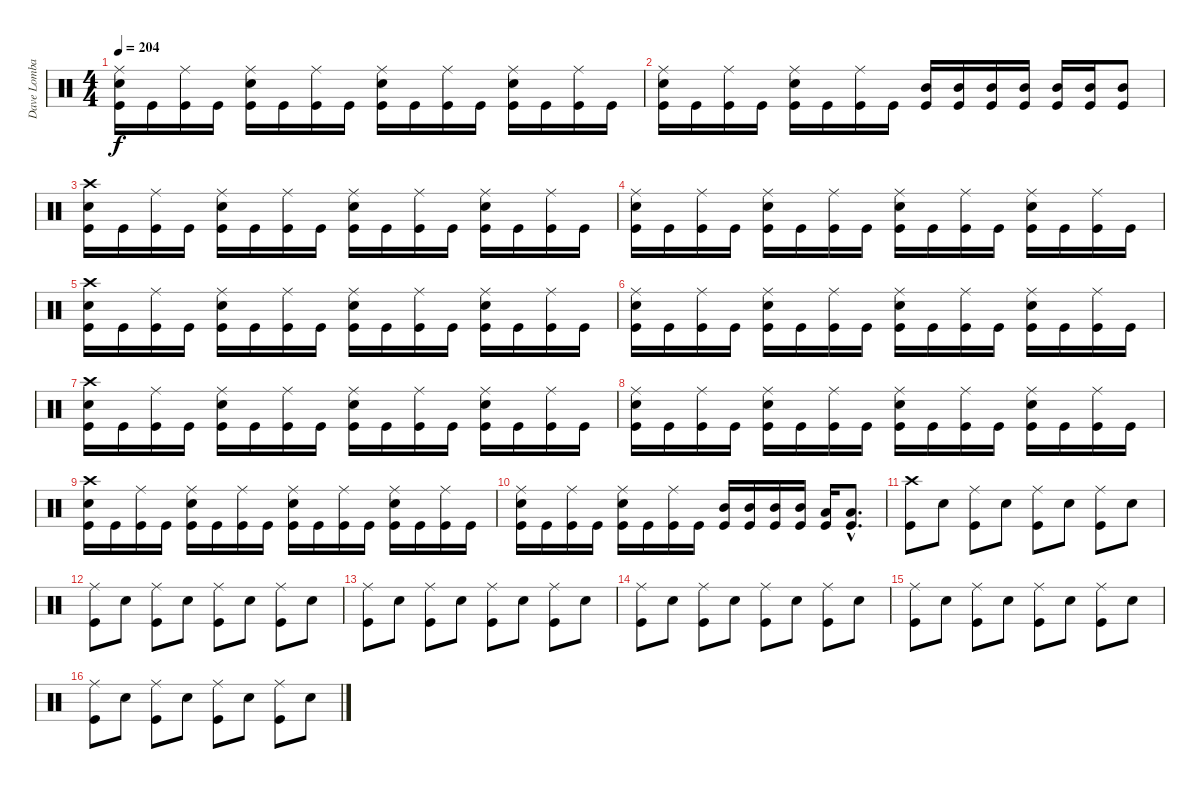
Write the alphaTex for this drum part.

\track ("Dave Lombardo" "Dave Lomba") {instrument percussion}
\staff {score}
\articulation defaults
\ts (4 4)
\tempo 204
\clef neutral
\ks c
("Ride (middle)" "Electric Snare (hit)" "Kick (hit)").16{dy f} "Kick (hit)".16 ("Ride (middle)" "Kick (hit)").16 "Kick (hit)".16 ("Ride (middle)" "Electric Snare (hit)" "Kick (hit)").16 "Kick (hit)".16 ("Ride (middle)" "Kick (hit)").16 "Kick (hit)".16 ("Ride (middle)" "Electric Snare (hit)" "Kick (hit)").16 "Kick (hit)".16 ("Ride (middle)" "Kick (hit)").16 "Kick (hit)".16 ("Ride (middle)" "Electric Snare (hit)" "Kick (hit)").16 "Kick (hit)".16 ("Ride (middle)" "Kick (hit)").16 "Kick (hit)".16 |
("Ride (middle)" "Electric Snare (hit)" "Kick (hit)").16 "Kick (hit)".16 ("Ride (middle)" "Kick (hit)").16 "Kick (hit)".16 ("Ride (middle)" "Electric Snare (hit)" "Kick (hit)").16 "Kick (hit)".16 ("Ride (middle)" "Kick (hit)").16 "Kick (hit)".16 ("Mid Tom (hit)" "Kick (hit)").16 ("Mid Tom (hit)" "Kick (hit)").16 ("Mid Tom (hit)" "Kick (hit)").16 ("Mid Tom (hit)" "Kick (hit)").16 ("Mid Tom (hit)" "Kick (hit)").16 ("Mid Tom (hit)" "Kick (hit)").16 ("Mid Tom (hit)" "Kick (hit)").8 |
("Crash high (hit)" "Electric Snare (hit)" "Kick (hit)").16 "Kick (hit)".16 ("Ride (middle)" "Kick (hit)").16 "Kick (hit)".16 ("Ride (middle)" "Electric Snare (hit)" "Kick (hit)").16 "Kick (hit)".16 ("Ride (middle)" "Kick (hit)").16 "Kick (hit)".16 ("Ride (middle)" "Electric Snare (hit)" "Kick (hit)").16 "Kick (hit)".16 ("Ride (middle)" "Kick (hit)").16 "Kick (hit)".16 ("Ride (middle)" "Electric Snare (hit)" "Kick (hit)").16 "Kick (hit)".16 ("Ride (middle)" "Kick (hit)").16 "Kick (hit)".16 |
("Ride (middle)" "Electric Snare (hit)" "Kick (hit)").16 "Kick (hit)".16 ("Ride (middle)" "Kick (hit)").16 "Kick (hit)".16 ("Ride (middle)" "Electric Snare (hit)" "Kick (hit)").16 "Kick (hit)".16 ("Ride (middle)" "Kick (hit)").16 "Kick (hit)".16 ("Ride (middle)" "Electric Snare (hit)" "Kick (hit)").16 "Kick (hit)".16 ("Ride (middle)" "Kick (hit)").16 "Kick (hit)".16 ("Ride (middle)" "Electric Snare (hit)" "Kick (hit)").16 "Kick (hit)".16 ("Ride (middle)" "Kick (hit)").16 "Kick (hit)".16 |
("Crash high (hit)" "Electric Snare (hit)" "Kick (hit)").16 "Kick (hit)".16 ("Ride (middle)" "Kick (hit)").16 "Kick (hit)".16 ("Ride (middle)" "Electric Snare (hit)" "Kick (hit)").16 "Kick (hit)".16 ("Ride (middle)" "Kick (hit)").16 "Kick (hit)".16 ("Ride (middle)" "Electric Snare (hit)" "Kick (hit)").16 "Kick (hit)".16 ("Ride (middle)" "Kick (hit)").16 "Kick (hit)".16 ("Ride (middle)" "Electric Snare (hit)" "Kick (hit)").16 "Kick (hit)".16 ("Ride (middle)" "Kick (hit)").16 "Kick (hit)".16 |
("Ride (middle)" "Electric Snare (hit)" "Kick (hit)").16 "Kick (hit)".16 ("Ride (middle)" "Kick (hit)").16 "Kick (hit)".16 ("Ride (middle)" "Electric Snare (hit)" "Kick (hit)").16 "Kick (hit)".16 ("Ride (middle)" "Kick (hit)").16 "Kick (hit)".16 ("Ride (middle)" "Electric Snare (hit)" "Kick (hit)").16 "Kick (hit)".16 ("Ride (middle)" "Kick (hit)").16 "Kick (hit)".16 ("Ride (middle)" "Electric Snare (hit)" "Kick (hit)").16 "Kick (hit)".16 ("Ride (middle)" "Kick (hit)").16 "Kick (hit)".16 |
("Crash high (hit)" "Electric Snare (hit)" "Kick (hit)").16 "Kick (hit)".16 ("Ride (middle)" "Kick (hit)").16 "Kick (hit)".16 ("Ride (middle)" "Electric Snare (hit)" "Kick (hit)").16 "Kick (hit)".16 ("Ride (middle)" "Kick (hit)").16 "Kick (hit)".16 ("Ride (middle)" "Electric Snare (hit)" "Kick (hit)").16 "Kick (hit)".16 ("Ride (middle)" "Kick (hit)").16 "Kick (hit)".16 ("Ride (middle)" "Electric Snare (hit)" "Kick (hit)").16 "Kick (hit)".16 ("Ride (middle)" "Kick (hit)").16 "Kick (hit)".16 |
("Ride (middle)" "Electric Snare (hit)" "Kick (hit)").16 "Kick (hit)".16 ("Ride (middle)" "Kick (hit)").16 "Kick (hit)".16 ("Ride (middle)" "Electric Snare (hit)" "Kick (hit)").16 "Kick (hit)".16 ("Ride (middle)" "Kick (hit)").16 "Kick (hit)".16 ("Ride (middle)" "Electric Snare (hit)" "Kick (hit)").16 "Kick (hit)".16 ("Ride (middle)" "Kick (hit)").16 "Kick (hit)".16 ("Ride (middle)" "Electric Snare (hit)" "Kick (hit)").16 "Kick (hit)".16 ("Ride (middle)" "Kick (hit)").16 "Kick (hit)".16 |
("Crash high (hit)" "Electric Snare (hit)" "Kick (hit)").16 "Kick (hit)".16 ("Ride (middle)" "Kick (hit)").16 "Kick (hit)".16 ("Ride (middle)" "Electric Snare (hit)" "Kick (hit)").16 "Kick (hit)".16 ("Ride (middle)" "Kick (hit)").16 "Kick (hit)".16 ("Ride (middle)" "Electric Snare (hit)" "Kick (hit)").16 "Kick (hit)".16 ("Ride (middle)" "Kick (hit)").16 "Kick (hit)".16 ("Ride (middle)" "Electric Snare (hit)" "Kick (hit)").16 "Kick (hit)".16 ("Ride (middle)" "Kick (hit)").16 "Kick (hit)".16 |
("Ride (middle)" "Electric Snare (hit)" "Kick (hit)").16 "Kick (hit)".16 ("Ride (middle)" "Kick (hit)").16 "Kick (hit)".16 ("Ride (middle)" "Electric Snare (hit)" "Kick (hit)").16 "Kick (hit)".16 ("Ride (middle)" "Kick (hit)").16 "Kick (hit)".16 ("Mid Tom (hit)" "Kick (hit)").16 ("Mid Tom (hit)" "Kick (hit)").16 ("Mid Tom (hit)" "Kick (hit)").16 ("Mid Tom (hit)" "Kick (hit)").16 ("Low Tom (hit)" "Kick (hit)").16 ("Low Tom (hit)"{hac} "Kick (hit)"{hac}).8{d} |
("Crash high (hit)" "Kick (hit)").8 "Electric Snare (hit)".8 ("Ride (middle)" "Kick (hit)").8 "Electric Snare (hit)".8 ("Ride (middle)" "Kick (hit)").8 "Electric Snare (hit)".8 ("Ride (middle)" "Kick (hit)").8 "Electric Snare (hit)".8 |
("Ride (middle)" "Kick (hit)").8 "Electric Snare (hit)".8 ("Ride (middle)" "Kick (hit)").8 "Electric Snare (hit)".8 ("Ride (middle)" "Kick (hit)").8 "Electric Snare (hit)".8 ("Ride (middle)" "Kick (hit)").8 "Electric Snare (hit)".8 |
("Ride (middle)" "Kick (hit)").8 "Electric Snare (hit)".8 ("Ride (middle)" "Kick (hit)").8 "Electric Snare (hit)".8 ("Ride (middle)" "Kick (hit)").8 "Electric Snare (hit)".8 ("Ride (middle)" "Kick (hit)").8 "Electric Snare (hit)".8 |
("Ride (middle)" "Kick (hit)").8 "Electric Snare (hit)".8 ("Ride (middle)" "Kick (hit)").8 "Electric Snare (hit)".8 ("Ride (middle)" "Kick (hit)").8 "Electric Snare (hit)".8 ("Ride (middle)" "Kick (hit)").8 "Electric Snare (hit)".8 |
("Ride (middle)" "Kick (hit)").8 "Electric Snare (hit)".8 ("Ride (middle)" "Kick (hit)").8 "Electric Snare (hit)".8 ("Ride (middle)" "Kick (hit)").8 "Electric Snare (hit)".8 ("Ride (middle)" "Kick (hit)").8 "Electric Snare (hit)".8 |
("Ride (middle)" "Kick (hit)").8 "Electric Snare (hit)".8 ("Ride (middle)" "Kick (hit)").8 "Electric Snare (hit)".8 ("Ride (middle)" "Kick (hit)").8 "Electric Snare (hit)".8 ("Ride (middle)" "Kick (hit)").8 "Electric Snare (hit)".8
